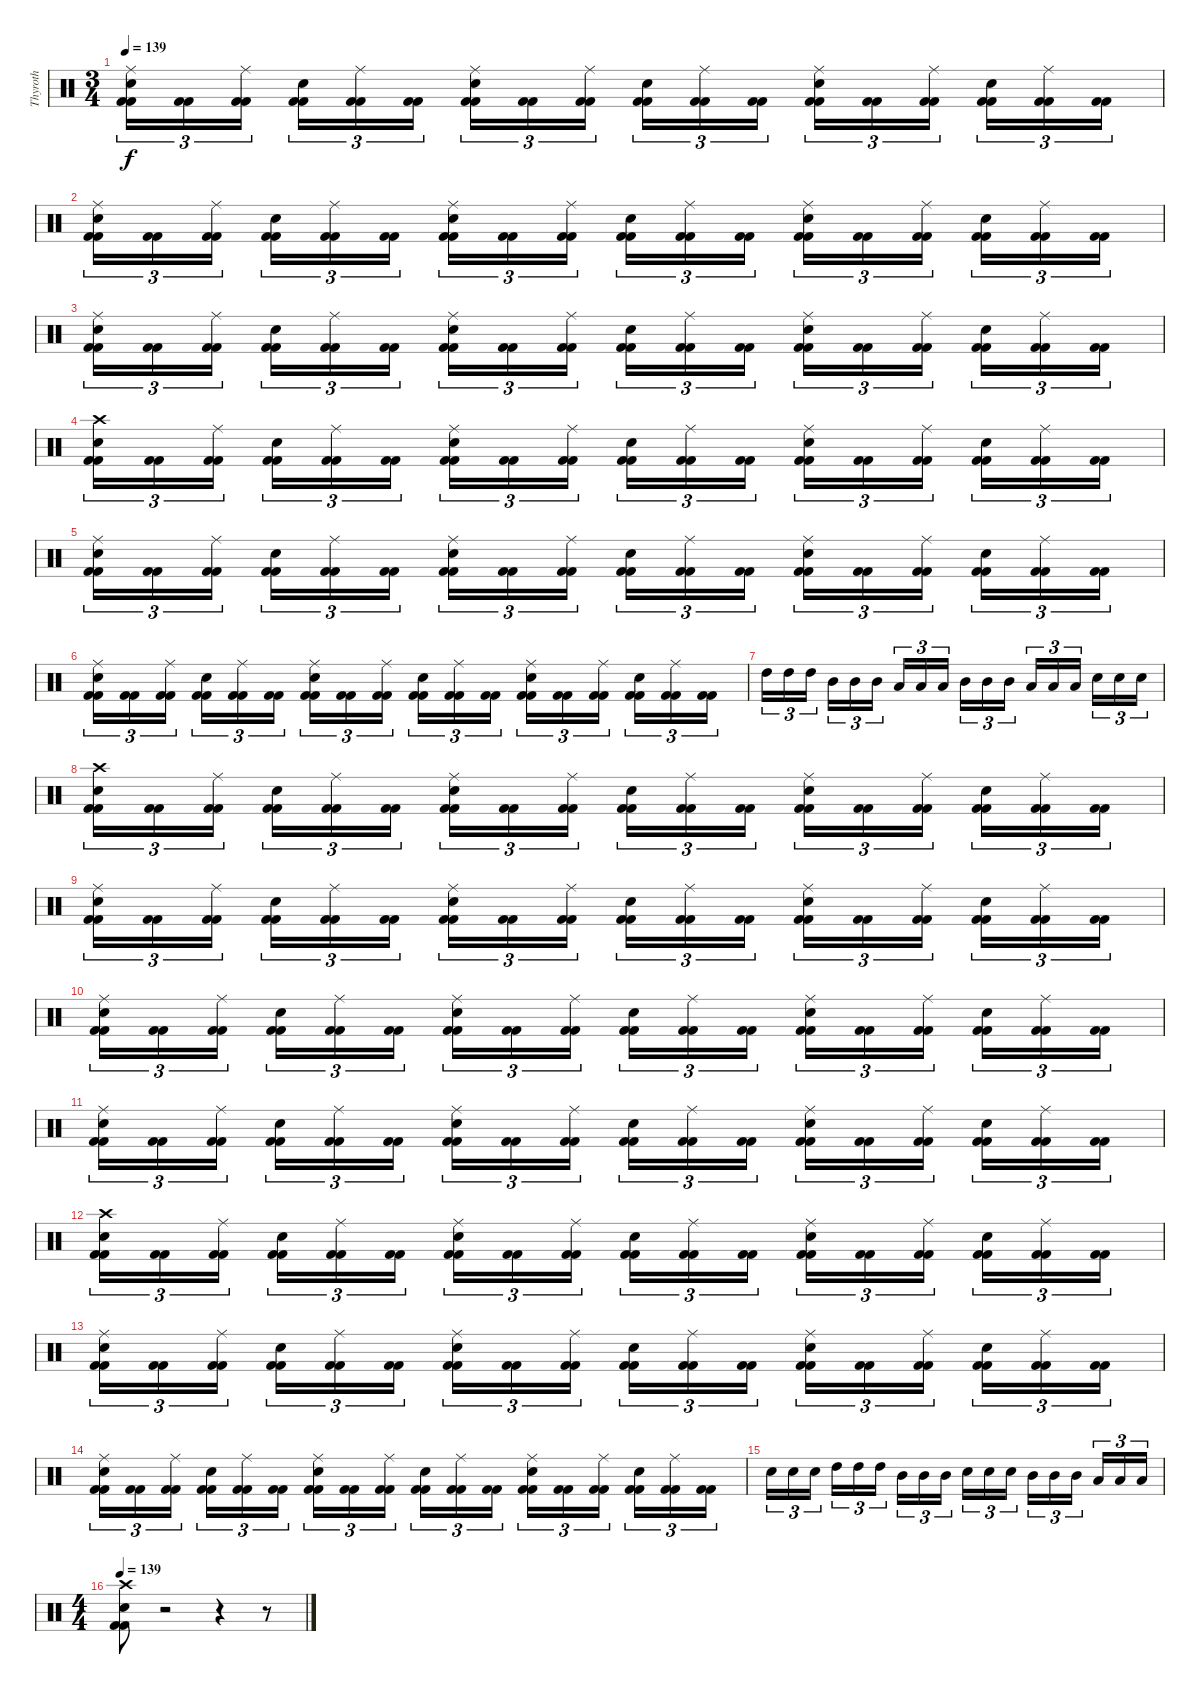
\track ("Thyroth" "Thyroth") {instrument percussion}
\staff {score}
\articulation defaults
\ts (3 4)
\tempo 139
\clef neutral
\ks c
("Kick (hit) 2" "Kick (hit) 2" "Snare (hit) 2" "Ride (middle)").16{tu (3 2) dy f} ("Kick (hit) 2" "Kick (hit) 2").16{tu (3 2)} ("Kick (hit) 2" "Kick (hit) 2" "Ride (middle)").16{tu (3 2)} ("Kick (hit) 2" "Kick (hit) 2" "Snare (hit) 2").16{tu (3 2)} ("Kick (hit) 2" "Kick (hit) 2" "Ride (middle)").16{tu (3 2)} ("Kick (hit) 2" "Kick (hit) 2").16{tu (3 2)} ("Kick (hit) 2" "Kick (hit) 2" "Snare (hit) 2" "Ride (middle)").16{tu (3 2)} ("Kick (hit) 2" "Kick (hit) 2").16{tu (3 2)} ("Kick (hit) 2" "Kick (hit) 2" "Ride (middle)").16{tu (3 2)} ("Kick (hit) 2" "Kick (hit) 2" "Snare (hit) 2").16{tu (3 2)} ("Kick (hit) 2" "Kick (hit) 2" "Ride (middle)").16{tu (3 2)} ("Kick (hit) 2" "Kick (hit) 2").16{tu (3 2)} ("Kick (hit) 2" "Kick (hit) 2" "Snare (hit) 2" "Ride (middle)").16{tu (3 2)} ("Kick (hit) 2" "Kick (hit) 2").16{tu (3 2)} ("Kick (hit) 2" "Kick (hit) 2" "Ride (middle)").16{tu (3 2)} ("Kick (hit) 2" "Kick (hit) 2" "Snare (hit) 2").16{tu (3 2)} ("Kick (hit) 2" "Kick (hit) 2" "Ride (middle)").16{tu (3 2)} ("Kick (hit) 2" "Kick (hit) 2").16{tu (3 2)} |
("Kick (hit) 2" "Kick (hit) 2" "Snare (hit) 2" "Ride (middle)").16{tu (3 2)} ("Kick (hit) 2" "Kick (hit) 2").16{tu (3 2)} ("Kick (hit) 2" "Kick (hit) 2" "Ride (middle)").16{tu (3 2)} ("Kick (hit) 2" "Kick (hit) 2" "Snare (hit) 2").16{tu (3 2)} ("Kick (hit) 2" "Kick (hit) 2" "Ride (middle)").16{tu (3 2)} ("Kick (hit) 2" "Kick (hit) 2").16{tu (3 2)} ("Kick (hit) 2" "Kick (hit) 2" "Snare (hit) 2" "Ride (middle)").16{tu (3 2)} ("Kick (hit) 2" "Kick (hit) 2").16{tu (3 2)} ("Kick (hit) 2" "Kick (hit) 2" "Ride (middle)").16{tu (3 2)} ("Kick (hit) 2" "Kick (hit) 2" "Snare (hit) 2").16{tu (3 2)} ("Kick (hit) 2" "Kick (hit) 2" "Ride (middle)").16{tu (3 2)} ("Kick (hit) 2" "Kick (hit) 2").16{tu (3 2)} ("Kick (hit) 2" "Kick (hit) 2" "Snare (hit) 2" "Ride (middle)").16{tu (3 2)} ("Kick (hit) 2" "Kick (hit) 2").16{tu (3 2)} ("Kick (hit) 2" "Kick (hit) 2" "Ride (middle)").16{tu (3 2)} ("Kick (hit) 2" "Kick (hit) 2" "Snare (hit) 2").16{tu (3 2)} ("Kick (hit) 2" "Kick (hit) 2" "Ride (middle)").16{tu (3 2)} ("Kick (hit) 2" "Kick (hit) 2").16{tu (3 2)} |
("Kick (hit) 2" "Kick (hit) 2" "Snare (hit) 2" "Ride (middle)").16{tu (3 2)} ("Kick (hit) 2" "Kick (hit) 2").16{tu (3 2)} ("Kick (hit) 2" "Kick (hit) 2" "Ride (middle)").16{tu (3 2)} ("Kick (hit) 2" "Kick (hit) 2" "Snare (hit) 2").16{tu (3 2)} ("Kick (hit) 2" "Kick (hit) 2" "Ride (middle)").16{tu (3 2)} ("Kick (hit) 2" "Kick (hit) 2").16{tu (3 2)} ("Kick (hit) 2" "Kick (hit) 2" "Snare (hit) 2" "Ride (middle)").16{tu (3 2)} ("Kick (hit) 2" "Kick (hit) 2").16{tu (3 2)} ("Kick (hit) 2" "Kick (hit) 2" "Ride (middle)").16{tu (3 2)} ("Kick (hit) 2" "Kick (hit) 2" "Snare (hit) 2").16{tu (3 2)} ("Kick (hit) 2" "Kick (hit) 2" "Ride (middle)").16{tu (3 2)} ("Kick (hit) 2" "Kick (hit) 2").16{tu (3 2)} ("Kick (hit) 2" "Kick (hit) 2" "Snare (hit) 2" "Ride (middle)").16{tu (3 2)} ("Kick (hit) 2" "Kick (hit) 2").16{tu (3 2)} ("Kick (hit) 2" "Kick (hit) 2" "Ride (middle)").16{tu (3 2)} ("Kick (hit) 2" "Kick (hit) 2" "Snare (hit) 2").16{tu (3 2)} ("Kick (hit) 2" "Kick (hit) 2" "Ride (middle)").16{tu (3 2)} ("Kick (hit) 2" "Kick (hit) 2").16{tu (3 2)} |
("Kick (hit) 2" "Kick (hit) 2" "Snare (hit) 2" "Crash high (hit)").16{tu (3 2)} ("Kick (hit) 2" "Kick (hit) 2").16{tu (3 2)} ("Kick (hit) 2" "Kick (hit) 2" "Ride (middle)").16{tu (3 2)} ("Kick (hit) 2" "Kick (hit) 2" "Snare (hit) 2").16{tu (3 2)} ("Kick (hit) 2" "Kick (hit) 2" "Ride (middle)").16{tu (3 2)} ("Kick (hit) 2" "Kick (hit) 2").16{tu (3 2)} ("Kick (hit) 2" "Kick (hit) 2" "Snare (hit) 2" "Ride (middle)").16{tu (3 2)} ("Kick (hit) 2" "Kick (hit) 2").16{tu (3 2)} ("Kick (hit) 2" "Kick (hit) 2" "Ride (middle)").16{tu (3 2)} ("Kick (hit) 2" "Kick (hit) 2" "Snare (hit) 2").16{tu (3 2)} ("Kick (hit) 2" "Kick (hit) 2" "Ride (middle)").16{tu (3 2)} ("Kick (hit) 2" "Kick (hit) 2").16{tu (3 2)} ("Kick (hit) 2" "Kick (hit) 2" "Snare (hit) 2" "Ride (middle)").16{tu (3 2)} ("Kick (hit) 2" "Kick (hit) 2").16{tu (3 2)} ("Kick (hit) 2" "Kick (hit) 2" "Ride (middle)").16{tu (3 2)} ("Kick (hit) 2" "Kick (hit) 2" "Snare (hit) 2").16{tu (3 2)} ("Kick (hit) 2" "Kick (hit) 2" "Ride (middle)").16{tu (3 2)} ("Kick (hit) 2" "Kick (hit) 2").16{tu (3 2)} |
("Kick (hit) 2" "Kick (hit) 2" "Snare (hit) 2" "Ride (middle)").16{tu (3 2)} ("Kick (hit) 2" "Kick (hit) 2").16{tu (3 2)} ("Kick (hit) 2" "Kick (hit) 2" "Ride (middle)").16{tu (3 2)} ("Kick (hit) 2" "Kick (hit) 2" "Snare (hit) 2").16{tu (3 2)} ("Kick (hit) 2" "Kick (hit) 2" "Ride (middle)").16{tu (3 2)} ("Kick (hit) 2" "Kick (hit) 2").16{tu (3 2)} ("Kick (hit) 2" "Kick (hit) 2" "Snare (hit) 2" "Ride (middle)").16{tu (3 2)} ("Kick (hit) 2" "Kick (hit) 2").16{tu (3 2)} ("Kick (hit) 2" "Kick (hit) 2" "Ride (middle)").16{tu (3 2)} ("Kick (hit) 2" "Kick (hit) 2" "Snare (hit) 2").16{tu (3 2)} ("Kick (hit) 2" "Kick (hit) 2" "Ride (middle)").16{tu (3 2)} ("Kick (hit) 2" "Kick (hit) 2").16{tu (3 2)} ("Kick (hit) 2" "Kick (hit) 2" "Snare (hit) 2" "Ride (middle)").16{tu (3 2)} ("Kick (hit) 2" "Kick (hit) 2").16{tu (3 2)} ("Kick (hit) 2" "Kick (hit) 2" "Ride (middle)").16{tu (3 2)} ("Kick (hit) 2" "Kick (hit) 2" "Snare (hit) 2").16{tu (3 2)} ("Kick (hit) 2" "Kick (hit) 2" "Ride (middle)").16{tu (3 2)} ("Kick (hit) 2" "Kick (hit) 2").16{tu (3 2)} |
("Kick (hit) 2" "Kick (hit) 2" "Snare (hit) 2" "Ride (middle)").16{tu (3 2)} ("Kick (hit) 2" "Kick (hit) 2").16{tu (3 2)} ("Kick (hit) 2" "Kick (hit) 2" "Ride (middle)").16{tu (3 2)} ("Kick (hit) 2" "Kick (hit) 2" "Snare (hit) 2").16{tu (3 2)} ("Kick (hit) 2" "Kick (hit) 2" "Ride (middle)").16{tu (3 2)} ("Kick (hit) 2" "Kick (hit) 2").16{tu (3 2)} ("Kick (hit) 2" "Kick (hit) 2" "Snare (hit) 2" "Ride (middle)").16{tu (3 2)} ("Kick (hit) 2" "Kick (hit) 2").16{tu (3 2)} ("Kick (hit) 2" "Kick (hit) 2" "Ride (middle)").16{tu (3 2)} ("Kick (hit) 2" "Kick (hit) 2" "Snare (hit) 2").16{tu (3 2)} ("Kick (hit) 2" "Kick (hit) 2" "Ride (middle)").16{tu (3 2)} ("Kick (hit) 2" "Kick (hit) 2").16{tu (3 2)} ("Kick (hit) 2" "Kick (hit) 2" "Snare (hit) 2" "Ride (middle)").16{tu (3 2)} ("Kick (hit) 2" "Kick (hit) 2").16{tu (3 2)} ("Kick (hit) 2" "Kick (hit) 2" "Ride (middle)").16{tu (3 2)} ("Kick (hit) 2" "Kick (hit) 2" "Snare (hit) 2").16{tu (3 2)} ("Kick (hit) 2" "Kick (hit) 2" "Ride (middle)").16{tu (3 2)} ("Kick (hit) 2" "Kick (hit) 2").16{tu (3 2)} |
"High Tom (hit)".16{tu (3 2)} "High Tom (hit)".16{tu (3 2)} "High Tom (hit)".16{tu (3 2)} "Mid Tom (hit)".16{tu (3 2)} "Mid Tom (hit)".16{tu (3 2)} "Mid Tom (hit)".16{tu (3 2)} "Low Tom (hit)".16{tu (3 2)} "Low Tom (hit)".16{tu (3 2)} "Low Tom (hit)".16{tu (3 2)} "Mid Tom (hit)".16{tu (3 2)} "Mid Tom (hit)".16{tu (3 2)} "Mid Tom (hit)".16{tu (3 2)} "Low Tom (hit)".16{tu (3 2)} "Low Tom (hit)".16{tu (3 2)} "Low Tom (hit)".16{tu (3 2)} "Snare (hit) 2".16{tu (3 2)} "Snare (hit) 2".16{tu (3 2)} "Snare (hit) 2".16{tu (3 2)} |
("Kick (hit) 2" "Kick (hit) 2" "Snare (hit) 2" "Crash high (hit)").16{tu (3 2)} ("Kick (hit) 2" "Kick (hit) 2").16{tu (3 2)} ("Kick (hit) 2" "Kick (hit) 2" "Ride (middle)").16{tu (3 2)} ("Kick (hit) 2" "Kick (hit) 2" "Snare (hit) 2").16{tu (3 2)} ("Kick (hit) 2" "Kick (hit) 2" "Ride (middle)").16{tu (3 2)} ("Kick (hit) 2" "Kick (hit) 2").16{tu (3 2)} ("Kick (hit) 2" "Kick (hit) 2" "Snare (hit) 2" "Ride (middle)").16{tu (3 2)} ("Kick (hit) 2" "Kick (hit) 2").16{tu (3 2)} ("Kick (hit) 2" "Kick (hit) 2" "Ride (middle)").16{tu (3 2)} ("Kick (hit) 2" "Kick (hit) 2" "Snare (hit) 2").16{tu (3 2)} ("Kick (hit) 2" "Kick (hit) 2" "Ride (middle)").16{tu (3 2)} ("Kick (hit) 2" "Kick (hit) 2").16{tu (3 2)} ("Kick (hit) 2" "Kick (hit) 2" "Snare (hit) 2" "Ride (middle)").16{tu (3 2)} ("Kick (hit) 2" "Kick (hit) 2").16{tu (3 2)} ("Kick (hit) 2" "Kick (hit) 2" "Ride (middle)").16{tu (3 2)} ("Kick (hit) 2" "Kick (hit) 2" "Snare (hit) 2").16{tu (3 2)} ("Kick (hit) 2" "Kick (hit) 2" "Ride (middle)").16{tu (3 2)} ("Kick (hit) 2" "Kick (hit) 2").16{tu (3 2)} |
("Kick (hit) 2" "Kick (hit) 2" "Snare (hit) 2" "Ride (middle)").16{tu (3 2)} ("Kick (hit) 2" "Kick (hit) 2").16{tu (3 2)} ("Kick (hit) 2" "Kick (hit) 2" "Ride (middle)").16{tu (3 2)} ("Kick (hit) 2" "Kick (hit) 2" "Snare (hit) 2").16{tu (3 2)} ("Kick (hit) 2" "Kick (hit) 2" "Ride (middle)").16{tu (3 2)} ("Kick (hit) 2" "Kick (hit) 2").16{tu (3 2)} ("Kick (hit) 2" "Kick (hit) 2" "Snare (hit) 2" "Ride (middle)").16{tu (3 2)} ("Kick (hit) 2" "Kick (hit) 2").16{tu (3 2)} ("Kick (hit) 2" "Kick (hit) 2" "Ride (middle)").16{tu (3 2)} ("Kick (hit) 2" "Kick (hit) 2" "Snare (hit) 2").16{tu (3 2)} ("Kick (hit) 2" "Kick (hit) 2" "Ride (middle)").16{tu (3 2)} ("Kick (hit) 2" "Kick (hit) 2").16{tu (3 2)} ("Kick (hit) 2" "Kick (hit) 2" "Snare (hit) 2" "Ride (middle)").16{tu (3 2)} ("Kick (hit) 2" "Kick (hit) 2").16{tu (3 2)} ("Kick (hit) 2" "Kick (hit) 2" "Ride (middle)").16{tu (3 2)} ("Kick (hit) 2" "Kick (hit) 2" "Snare (hit) 2").16{tu (3 2)} ("Kick (hit) 2" "Kick (hit) 2" "Ride (middle)").16{tu (3 2)} ("Kick (hit) 2" "Kick (hit) 2").16{tu (3 2)} |
("Kick (hit) 2" "Kick (hit) 2" "Snare (hit) 2" "Ride (middle)").16{tu (3 2)} ("Kick (hit) 2" "Kick (hit) 2").16{tu (3 2)} ("Kick (hit) 2" "Kick (hit) 2" "Ride (middle)").16{tu (3 2)} ("Kick (hit) 2" "Kick (hit) 2" "Snare (hit) 2").16{tu (3 2)} ("Kick (hit) 2" "Kick (hit) 2" "Ride (middle)").16{tu (3 2)} ("Kick (hit) 2" "Kick (hit) 2").16{tu (3 2)} ("Kick (hit) 2" "Kick (hit) 2" "Snare (hit) 2" "Ride (middle)").16{tu (3 2)} ("Kick (hit) 2" "Kick (hit) 2").16{tu (3 2)} ("Kick (hit) 2" "Kick (hit) 2" "Ride (middle)").16{tu (3 2)} ("Kick (hit) 2" "Kick (hit) 2" "Snare (hit) 2").16{tu (3 2)} ("Kick (hit) 2" "Kick (hit) 2" "Ride (middle)").16{tu (3 2)} ("Kick (hit) 2" "Kick (hit) 2").16{tu (3 2)} ("Kick (hit) 2" "Kick (hit) 2" "Snare (hit) 2" "Ride (middle)").16{tu (3 2)} ("Kick (hit) 2" "Kick (hit) 2").16{tu (3 2)} ("Kick (hit) 2" "Kick (hit) 2" "Ride (middle)").16{tu (3 2)} ("Kick (hit) 2" "Kick (hit) 2" "Snare (hit) 2").16{tu (3 2)} ("Kick (hit) 2" "Kick (hit) 2" "Ride (middle)").16{tu (3 2)} ("Kick (hit) 2" "Kick (hit) 2").16{tu (3 2)} |
("Kick (hit) 2" "Kick (hit) 2" "Snare (hit) 2" "Ride (middle)").16{tu (3 2)} ("Kick (hit) 2" "Kick (hit) 2").16{tu (3 2)} ("Kick (hit) 2" "Kick (hit) 2" "Ride (middle)").16{tu (3 2)} ("Kick (hit) 2" "Kick (hit) 2" "Snare (hit) 2").16{tu (3 2)} ("Kick (hit) 2" "Kick (hit) 2" "Ride (middle)").16{tu (3 2)} ("Kick (hit) 2" "Kick (hit) 2").16{tu (3 2)} ("Kick (hit) 2" "Kick (hit) 2" "Snare (hit) 2" "Ride (middle)").16{tu (3 2)} ("Kick (hit) 2" "Kick (hit) 2").16{tu (3 2)} ("Kick (hit) 2" "Kick (hit) 2" "Ride (middle)").16{tu (3 2)} ("Kick (hit) 2" "Kick (hit) 2" "Snare (hit) 2").16{tu (3 2)} ("Kick (hit) 2" "Kick (hit) 2" "Ride (middle)").16{tu (3 2)} ("Kick (hit) 2" "Kick (hit) 2").16{tu (3 2)} ("Kick (hit) 2" "Kick (hit) 2" "Snare (hit) 2" "Ride (middle)").16{tu (3 2)} ("Kick (hit) 2" "Kick (hit) 2").16{tu (3 2)} ("Kick (hit) 2" "Kick (hit) 2" "Ride (middle)").16{tu (3 2)} ("Kick (hit) 2" "Kick (hit) 2" "Snare (hit) 2").16{tu (3 2)} ("Kick (hit) 2" "Kick (hit) 2" "Ride (middle)").16{tu (3 2)} ("Kick (hit) 2" "Kick (hit) 2").16{tu (3 2)} |
("Kick (hit) 2" "Kick (hit) 2" "Snare (hit) 2" "Crash high (hit)").16{tu (3 2)} ("Kick (hit) 2" "Kick (hit) 2").16{tu (3 2)} ("Kick (hit) 2" "Kick (hit) 2" "Ride (middle)").16{tu (3 2)} ("Kick (hit) 2" "Kick (hit) 2" "Snare (hit) 2").16{tu (3 2)} ("Kick (hit) 2" "Kick (hit) 2" "Ride (middle)").16{tu (3 2)} ("Kick (hit) 2" "Kick (hit) 2").16{tu (3 2)} ("Kick (hit) 2" "Kick (hit) 2" "Snare (hit) 2" "Ride (middle)").16{tu (3 2)} ("Kick (hit) 2" "Kick (hit) 2").16{tu (3 2)} ("Kick (hit) 2" "Kick (hit) 2" "Ride (middle)").16{tu (3 2)} ("Kick (hit) 2" "Kick (hit) 2" "Snare (hit) 2").16{tu (3 2)} ("Kick (hit) 2" "Kick (hit) 2" "Ride (middle)").16{tu (3 2)} ("Kick (hit) 2" "Kick (hit) 2").16{tu (3 2)} ("Kick (hit) 2" "Kick (hit) 2" "Snare (hit) 2" "Ride (middle)").16{tu (3 2)} ("Kick (hit) 2" "Kick (hit) 2").16{tu (3 2)} ("Kick (hit) 2" "Kick (hit) 2" "Ride (middle)").16{tu (3 2)} ("Kick (hit) 2" "Kick (hit) 2" "Snare (hit) 2").16{tu (3 2)} ("Kick (hit) 2" "Kick (hit) 2" "Ride (middle)").16{tu (3 2)} ("Kick (hit) 2" "Kick (hit) 2").16{tu (3 2)} |
("Kick (hit) 2" "Kick (hit) 2" "Snare (hit) 2" "Ride (middle)").16{tu (3 2)} ("Kick (hit) 2" "Kick (hit) 2").16{tu (3 2)} ("Kick (hit) 2" "Kick (hit) 2" "Ride (middle)").16{tu (3 2)} ("Kick (hit) 2" "Kick (hit) 2" "Snare (hit) 2").16{tu (3 2)} ("Kick (hit) 2" "Kick (hit) 2" "Ride (middle)").16{tu (3 2)} ("Kick (hit) 2" "Kick (hit) 2").16{tu (3 2)} ("Kick (hit) 2" "Kick (hit) 2" "Snare (hit) 2" "Ride (middle)").16{tu (3 2)} ("Kick (hit) 2" "Kick (hit) 2").16{tu (3 2)} ("Kick (hit) 2" "Kick (hit) 2" "Ride (middle)").16{tu (3 2)} ("Kick (hit) 2" "Kick (hit) 2" "Snare (hit) 2").16{tu (3 2)} ("Kick (hit) 2" "Kick (hit) 2" "Ride (middle)").16{tu (3 2)} ("Kick (hit) 2" "Kick (hit) 2").16{tu (3 2)} ("Kick (hit) 2" "Kick (hit) 2" "Snare (hit) 2" "Ride (middle)").16{tu (3 2)} ("Kick (hit) 2" "Kick (hit) 2").16{tu (3 2)} ("Kick (hit) 2" "Kick (hit) 2" "Ride (middle)").16{tu (3 2)} ("Kick (hit) 2" "Kick (hit) 2" "Snare (hit) 2").16{tu (3 2)} ("Kick (hit) 2" "Kick (hit) 2" "Ride (middle)").16{tu (3 2)} ("Kick (hit) 2" "Kick (hit) 2").16{tu (3 2)} |
("Kick (hit) 2" "Kick (hit) 2" "Snare (hit) 2" "Ride (middle)").16{tu (3 2)} ("Kick (hit) 2" "Kick (hit) 2").16{tu (3 2)} ("Kick (hit) 2" "Kick (hit) 2" "Ride (middle)").16{tu (3 2)} ("Kick (hit) 2" "Kick (hit) 2" "Snare (hit) 2").16{tu (3 2)} ("Kick (hit) 2" "Kick (hit) 2" "Ride (middle)").16{tu (3 2)} ("Kick (hit) 2" "Kick (hit) 2").16{tu (3 2)} ("Kick (hit) 2" "Kick (hit) 2" "Snare (hit) 2" "Ride (middle)").16{tu (3 2)} ("Kick (hit) 2" "Kick (hit) 2").16{tu (3 2)} ("Kick (hit) 2" "Kick (hit) 2" "Ride (middle)").16{tu (3 2)} ("Kick (hit) 2" "Kick (hit) 2" "Snare (hit) 2").16{tu (3 2)} ("Kick (hit) 2" "Kick (hit) 2" "Ride (middle)").16{tu (3 2)} ("Kick (hit) 2" "Kick (hit) 2").16{tu (3 2)} ("Kick (hit) 2" "Kick (hit) 2" "Snare (hit) 2" "Ride (middle)").16{tu (3 2)} ("Kick (hit) 2" "Kick (hit) 2").16{tu (3 2)} ("Kick (hit) 2" "Kick (hit) 2" "Ride (middle)").16{tu (3 2)} ("Kick (hit) 2" "Kick (hit) 2" "Snare (hit) 2").16{tu (3 2)} ("Kick (hit) 2" "Kick (hit) 2" "Ride (middle)").16{tu (3 2)} ("Kick (hit) 2" "Kick (hit) 2").16{tu (3 2)} |
"Snare (hit) 2".16{tu (3 2)} "Snare (hit) 2".16{tu (3 2)} "Snare (hit) 2".16{tu (3 2)} "High Tom (hit)".16{tu (3 2)} "High Tom (hit)".16{tu (3 2)} "High Tom (hit)".16{tu (3 2)} "Mid Tom (hit)".16{tu (3 2)} "Mid Tom (hit)".16{tu (3 2)} "Mid Tom (hit)".16{tu (3 2)} "Snare (hit) 2".16{tu (3 2)} "Snare (hit) 2".16{tu (3 2)} "Snare (hit) 2".16{tu (3 2)} "Mid Tom (hit)".16{tu (3 2)} "Mid Tom (hit)".16{tu (3 2)} "Mid Tom (hit)".16{tu (3 2)} "Low Tom (hit)".16{tu (3 2)} "Low Tom (hit)".16{tu (3 2)} "Low Tom (hit)".16{tu (3 2)} |
\ts (4 4)
\tempo 139
("Kick (hit) 2" "Kick (hit) 2" "Snare (hit) 2" "Crash high (hit)").8 r.2 r.4 r.8
